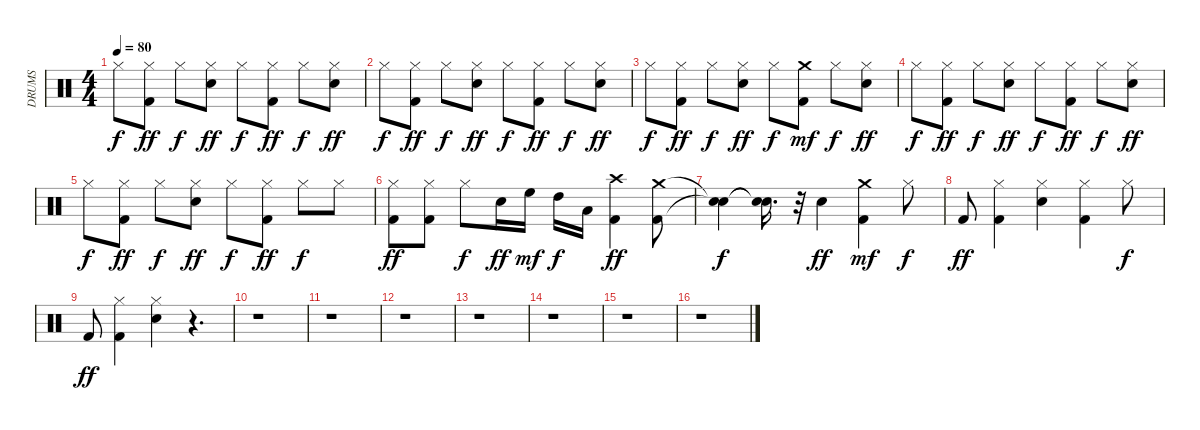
\track ("DRUMS                               " "DRUMS     ") {instrument percussion}
\staff {score}
\articulation defaults
\ts (4 4)
\tempo 80
\clef neutral
\ks c "Hi-Hat (closed)".8{dy f}
("Kick (hit) 2" "Hi-Hat (closed)").8{dy ff} "Hi-Hat (closed)".8{dy f} ("Snare (hit) 2" "Hi-Hat (closed)").8{dy ff} "Hi-Hat (closed)".8{dy f} ("Kick (hit) 2" "Hi-Hat (closed)").8{dy ff} "Hi-Hat (closed)".8{dy f} ("Snare (hit) 2" "Hi-Hat (closed)").8{dy ff} |
"Hi-Hat (closed)".8{dy f} ("Kick (hit) 2" "Hi-Hat (closed)").8{dy ff} "Hi-Hat (closed)".8{dy f} ("Snare (hit) 2" "Hi-Hat (closed)").8{dy ff} "Hi-Hat (closed)".8{dy f} ("Kick (hit) 2" "Hi-Hat (closed)").8{dy ff} "Hi-Hat (closed)".8{dy f} ("Snare (hit) 2" "Hi-Hat (closed)").8{dy ff} |
"Hi-Hat (closed)".8{dy f} ("Kick (hit) 2" "Hi-Hat (closed)").8{dy ff} "Hi-Hat (closed)".8{dy f} ("Snare (hit) 2" "Hi-Hat (closed)").8{dy ff} "Hi-Hat (closed)".8{dy f} ("Kick (hit) 2" "Crash medium (hit)").8{dy mf} "Hi-Hat (closed)".8{dy f} ("Snare (hit) 2" "Hi-Hat (closed)").8{dy ff} |
"Hi-Hat (closed)".8{dy f} ("Kick (hit) 2" "Hi-Hat (closed)").8{dy ff} "Hi-Hat (closed)".8{dy f} ("Snare (hit) 2" "Hi-Hat (closed)").8{dy ff} "Hi-Hat (closed)".8{dy f} ("Kick (hit) 2" "Hi-Hat (closed)").8{dy ff} "Hi-Hat (closed)".8{dy f} ("Snare (hit) 2" "Hi-Hat (closed)").8{dy ff} |
"Hi-Hat (closed)".8{dy f} ("Kick (hit) 2" "Hi-Hat (closed)").8{dy ff} "Hi-Hat (closed)".8{dy f} ("Snare (hit) 2" "Hi-Hat (closed)").8{dy ff} "Hi-Hat (closed)".8{dy f} ("Kick (hit) 2" "Hi-Hat (closed)").8{dy ff} "Hi-Hat (closed)".8{dy f} "Hi-Hat (closed)".8 |
("Kick (hit) 2" "Hi-Hat (closed)").8{dy ff} ("Kick (hit) 2" "Hi-Hat (closed)").8 "Hi-Hat (closed)".8{dy f} "Snare (hit) 2".16{dy ff} "High Floor Tom (hit)".16{dy mf} "High Tom (hit)".16{dy f} "Low Tom (hit)".16 ("Kick (hit) 2" "Crash high (hit)").4{dy ff} ("Kick (hit) 2" "Crash medium (hit)").8 |
("Snare (hit)"{t} "Snare (hit)"{t}).4{dy f} ("Snare (hit)"{t} "Snare (hit)"{t}).16{d} r.32 "Snare (hit) 2".4{dy ff} ("Kick (hit) 2" "Crash medium (hit)").4{dy mf} "Hi-Hat (closed)".8{dy f} |
"Kick (hit) 2".8{dy ff} ("Kick (hit) 2" "Hi-Hat (closed)").4 ("Snare (hit) 2" "Hi-Hat (closed)").4 ("Kick (hit) 2" "Hi-Hat (closed)").4 "Hi-Hat (closed)".8{dy f} |
"Kick (hit) 2".8{dy ff} ("Kick (hit) 2" "Hi-Hat (closed)").4 ("Snare (hit) 2" "Hi-Hat (closed)").4 r.4{d} |
r.1 |
r.1 |
r.1 |
r.1 |
r.1 |
r.1 |
r.1
